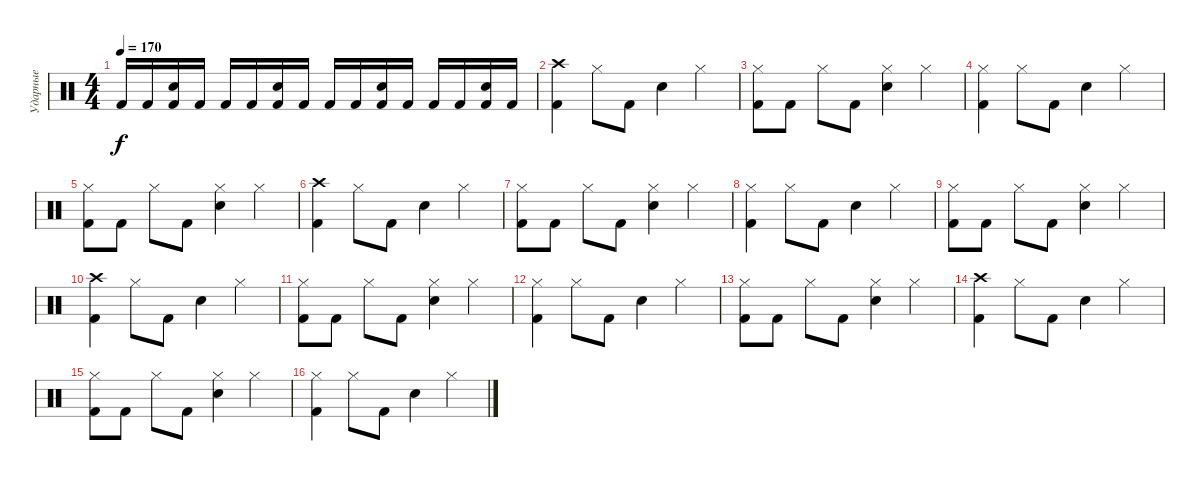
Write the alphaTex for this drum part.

\track ("Ударные" "Ударные") {instrument percussion}
\staff {score}
\articulation defaults
\ts (4 4)
\tempo 170
\clef neutral
\ks c "Kick (hit) 2".16{dy f} "Kick (hit) 2".16
("Kick (hit) 2" "Electric Snare (hit)").16 "Kick (hit) 2".16 "Kick (hit) 2".16 "Kick (hit) 2".16 ("Kick (hit) 2" "Electric Snare (hit)").16 "Kick (hit) 2".16 "Kick (hit) 2".16 "Kick (hit) 2".16 ("Kick (hit) 2" "Electric Snare (hit)").16 "Kick (hit) 2".16 "Kick (hit) 2".16 "Kick (hit) 2".16 ("Kick (hit) 2" "Electric Snare (hit)").16 "Kick (hit) 2".16 |
("Crash high (hit)" "Kick (hit) 2").4 "Hi-Hat (closed)".8 "Kick (hit) 2".8 "Electric Snare (hit)".4 "Hi-Hat (closed)".4 |
("Kick (hit) 2" "Hi-Hat (closed)").8 "Kick (hit) 2".8 "Hi-Hat (closed)".8 "Kick (hit) 2".8 ("Hi-Hat (closed)" "Electric Snare (hit)").4 "Hi-Hat (closed)".4 |
("Kick (hit) 2" "Hi-Hat (closed)").4 "Hi-Hat (closed)".8 "Kick (hit) 2".8 "Electric Snare (hit)".4 "Hi-Hat (closed)".4 |
("Kick (hit) 2" "Hi-Hat (closed)").8 "Kick (hit) 2".8 "Hi-Hat (closed)".8 "Kick (hit) 2".8 ("Hi-Hat (closed)" "Electric Snare (hit)").4 "Hi-Hat (closed)".4 |
("Crash high (hit)" "Kick (hit) 2").4 "Hi-Hat (closed)".8 "Kick (hit) 2".8 "Electric Snare (hit)".4 "Hi-Hat (closed)".4 |
("Kick (hit) 2" "Hi-Hat (closed)").8 "Kick (hit) 2".8 "Hi-Hat (closed)".8 "Kick (hit) 2".8 ("Hi-Hat (closed)" "Electric Snare (hit)").4 "Hi-Hat (closed)".4 |
("Kick (hit) 2" "Hi-Hat (closed)").4 "Hi-Hat (closed)".8 "Kick (hit) 2".8 "Electric Snare (hit)".4 "Hi-Hat (closed)".4 |
("Kick (hit) 2" "Hi-Hat (closed)").8 "Kick (hit) 2".8 "Hi-Hat (closed)".8 "Kick (hit) 2".8 ("Hi-Hat (closed)" "Electric Snare (hit)").4 "Hi-Hat (closed)".4 |
("Crash high (hit)" "Kick (hit) 2").4 "Hi-Hat (closed)".8 "Kick (hit) 2".8 "Electric Snare (hit)".4 "Hi-Hat (closed)".4 |
("Kick (hit) 2" "Hi-Hat (closed)").8 "Kick (hit) 2".8 "Hi-Hat (closed)".8 "Kick (hit) 2".8 ("Hi-Hat (closed)" "Electric Snare (hit)").4 "Hi-Hat (closed)".4 |
("Kick (hit) 2" "Hi-Hat (closed)").4 "Hi-Hat (closed)".8 "Kick (hit) 2".8 "Electric Snare (hit)".4 "Hi-Hat (closed)".4 |
("Kick (hit) 2" "Hi-Hat (closed)").8 "Kick (hit) 2".8 "Hi-Hat (closed)".8 "Kick (hit) 2".8 ("Hi-Hat (closed)" "Electric Snare (hit)").4 "Hi-Hat (closed)".4 |
("Crash high (hit)" "Kick (hit) 2").4 "Hi-Hat (closed)".8 "Kick (hit) 2".8 "Electric Snare (hit)".4 "Hi-Hat (closed)".4 |
("Kick (hit) 2" "Hi-Hat (closed)").8 "Kick (hit) 2".8 "Hi-Hat (closed)".8 "Kick (hit) 2".8 ("Hi-Hat (closed)" "Electric Snare (hit)").4 "Hi-Hat (closed)".4 |
("Kick (hit) 2" "Hi-Hat (closed)").4 "Hi-Hat (closed)".8 "Kick (hit) 2".8 "Electric Snare (hit)".4 "Hi-Hat (closed)".4
